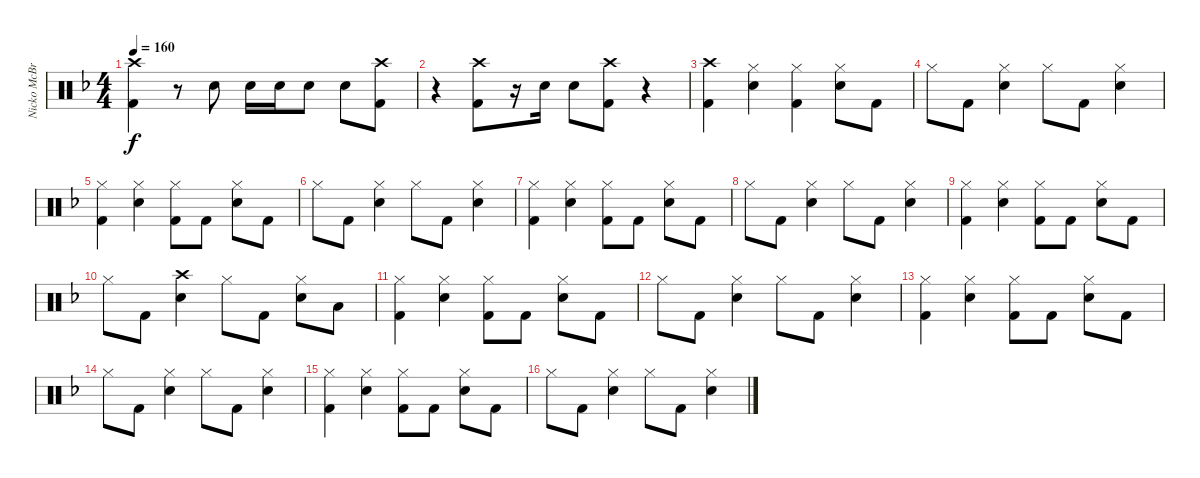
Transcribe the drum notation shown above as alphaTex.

\track ("Nicko McBrain" "Nicko McBr") {instrument percussion}
\staff {score}
\articulation defaults
\ts (4 4)
\tempo 160
\clef neutral
\ks f
("Crash high (hit)" "Kick (hit) 2").4{dy f} r.8 "Electric Snare (hit)".8 "Electric Snare (hit)".16 "Electric Snare (hit)".16 "Electric Snare (hit)".8 "Electric Snare (hit)".8 ("Crash high (hit)" "Kick (hit) 2").8 |
r.4 ("Crash high (hit)" "Kick (hit) 2").8 r.16 "Electric Snare (hit)".16 "Electric Snare (hit)".8 ("Crash high (hit)" "Kick (hit) 2").8 r.4 |
("Crash high (hit)" "Kick (hit) 2").4 ("Hi-Hat (closed)" "Electric Snare (hit)").4 ("Hi-Hat (closed)" "Kick (hit) 2").4 ("Hi-Hat (closed)" "Electric Snare (hit)").8 "Kick (hit) 2".8 |
"Hi-Hat (closed)".8 "Kick (hit) 2".8 ("Hi-Hat (closed)" "Electric Snare (hit)").4 "Hi-Hat (closed)".8 "Kick (hit) 2".8 ("Hi-Hat (closed)" "Electric Snare (hit)").4 |
("Hi-Hat (closed)" "Kick (hit) 2").4 ("Hi-Hat (closed)" "Electric Snare (hit)").4 ("Hi-Hat (closed)" "Kick (hit) 2").8 "Kick (hit) 2".8 ("Hi-Hat (closed)" "Electric Snare (hit)").8 "Kick (hit) 2".8 |
"Hi-Hat (closed)".8 "Kick (hit) 2".8 ("Hi-Hat (closed)" "Electric Snare (hit)").4 "Hi-Hat (closed)".8 "Kick (hit) 2".8 ("Hi-Hat (closed)" "Electric Snare (hit)").4 |
("Hi-Hat (closed)" "Kick (hit) 2").4 ("Hi-Hat (closed)" "Electric Snare (hit)").4 ("Hi-Hat (closed)" "Kick (hit) 2").8 "Kick (hit) 2".8 ("Hi-Hat (closed)" "Electric Snare (hit)").8 "Kick (hit) 2".8 |
"Hi-Hat (closed)".8 "Kick (hit) 2".8 ("Hi-Hat (closed)" "Electric Snare (hit)").4 "Hi-Hat (closed)".8 "Kick (hit) 2".8 ("Hi-Hat (closed)" "Electric Snare (hit)").4 |
("Hi-Hat (closed)" "Kick (hit) 2").4 ("Hi-Hat (closed)" "Electric Snare (hit)").4 ("Hi-Hat (closed)" "Kick (hit) 2").8 "Kick (hit) 2".8 ("Hi-Hat (closed)" "Electric Snare (hit)").8 "Kick (hit) 2".8 |
"Hi-Hat (closed)".8 "Kick (hit) 2".8 ("Crash high (hit)" "Electric Snare (hit)").4 "Hi-Hat (closed)".8 "Kick (hit) 2".8 ("Hi-Hat (closed)" "Electric Snare (hit)").8 "Low Tom (hit)".8 |
("Hi-Hat (closed)" "Kick (hit) 2").4 ("Hi-Hat (closed)" "Electric Snare (hit)").4 ("Hi-Hat (closed)" "Kick (hit) 2").8 "Kick (hit) 2".8 ("Hi-Hat (closed)" "Electric Snare (hit)").8 "Kick (hit) 2".8 |
"Hi-Hat (closed)".8 "Kick (hit) 2".8 ("Hi-Hat (closed)" "Electric Snare (hit)").4 "Hi-Hat (closed)".8 "Kick (hit) 2".8 ("Hi-Hat (closed)" "Electric Snare (hit)").4 |
("Hi-Hat (closed)" "Kick (hit) 2").4 ("Hi-Hat (closed)" "Electric Snare (hit)").4 ("Hi-Hat (closed)" "Kick (hit) 2").8 "Kick (hit) 2".8 ("Hi-Hat (closed)" "Electric Snare (hit)").8 "Kick (hit) 2".8 |
"Hi-Hat (closed)".8 "Kick (hit) 2".8 ("Hi-Hat (closed)" "Electric Snare (hit)").4 "Hi-Hat (closed)".8 "Kick (hit) 2".8 ("Hi-Hat (closed)" "Electric Snare (hit)").4 |
("Hi-Hat (closed)" "Kick (hit) 2").4 ("Hi-Hat (closed)" "Electric Snare (hit)").4 ("Hi-Hat (closed)" "Kick (hit) 2").8 "Kick (hit) 2".8 ("Hi-Hat (closed)" "Electric Snare (hit)").8 "Kick (hit) 2".8 |
"Hi-Hat (closed)".8 "Kick (hit) 2".8 ("Hi-Hat (closed)" "Electric Snare (hit)").4 "Hi-Hat (closed)".8 "Kick (hit) 2".8 ("Hi-Hat (closed)" "Electric Snare (hit)").4
